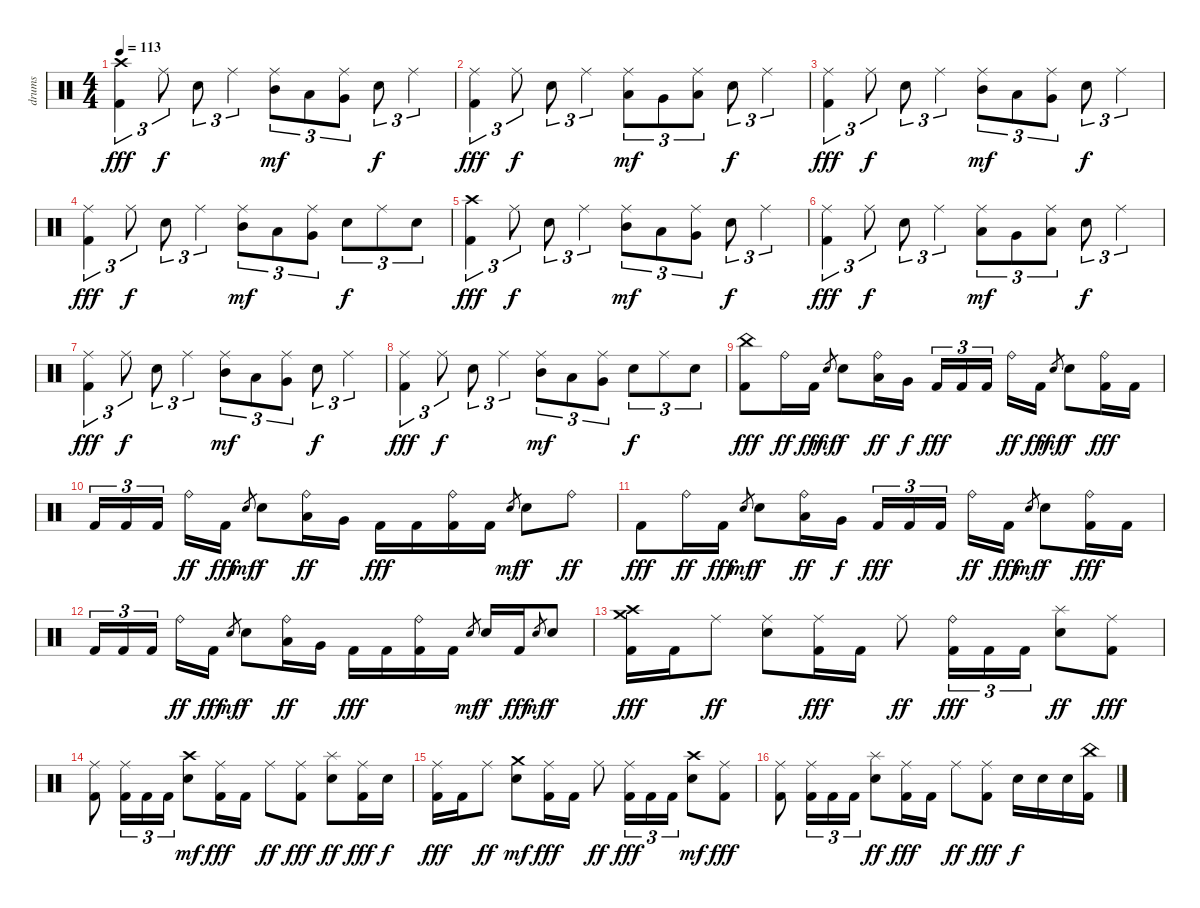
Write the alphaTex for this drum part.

\track ("drums" "drums") {instrument percussion}
\staff {score}
\articulation defaults
\ts (4 4)
\tempo 113
\clef neutral
\ks c
("Crash high (hit)" "Kick (hit) 2").4{tu (3 2) dy fff} "Ride (middle)".8{tu (3 2) dy f} "Electric Snare (hit)".8{tu (3 2)} "Ride (middle)".4{tu (3 2)} ("Ride (middle)" "Mid Tom (hit)").8{tu (3 2) dy mf} "Low Tom (hit)".8{tu (3 2)} ("Ride (middle)" "Very Low Tom (hit)").8{tu (3 2)} "Electric Snare (hit)".8{tu (3 2) dy f} "Ride (middle)".4{tu (3 2)} |
("Ride (middle)" "Kick (hit) 2").4{tu (3 2) dy fff} "Ride (middle)".8{tu (3 2) dy f} "Electric Snare (hit)".8{tu (3 2)} "Ride (middle)".4{tu (3 2)} ("Ride (middle)" "Low Tom (hit)").8{tu (3 2) dy mf} "Very Low Tom (hit)".8{tu (3 2)} ("Ride (middle)" "Low Floor Tom (hit)").8{tu (3 2)} "Electric Snare (hit)".8{tu (3 2) dy f} "Ride (middle)".4{tu (3 2)} |
("Ride (middle)" "Kick (hit) 2").4{tu (3 2) dy fff} "Ride (middle)".8{tu (3 2) dy f} "Electric Snare (hit)".8{tu (3 2)} "Ride (middle)".4{tu (3 2)} ("Ride (middle)" "Mid Tom (hit)").8{tu (3 2) dy mf} "Low Tom (hit)".8{tu (3 2)} ("Ride (middle)" "Very Low Tom (hit)").8{tu (3 2)} "Electric Snare (hit)".8{tu (3 2) dy f} "Ride (middle)".4{tu (3 2)} |
("Ride (middle)" "Kick (hit) 2").4{tu (3 2) dy fff} "Ride (middle)".8{tu (3 2) dy f} "Electric Snare (hit)".8{tu (3 2)} "Ride (middle)".4{tu (3 2)} ("Ride (middle)" "Mid Tom (hit)").8{tu (3 2) dy mf} "Low Tom (hit)".8{tu (3 2)} ("Ride (middle)" "Very Low Tom (hit)").8{tu (3 2)} "Electric Snare (hit)".8{tu (3 2) dy f} "Ride (middle)".8{tu (3 2)} "Electric Snare (hit)".8{tu (3 2)} |
("Crash high (hit)" "Kick (hit) 2").4{tu (3 2) dy fff} "Ride (middle)".8{tu (3 2) dy f} "Electric Snare (hit)".8{tu (3 2)} "Ride (middle)".4{tu (3 2)} ("Ride (middle)" "Mid Tom (hit)").8{tu (3 2) dy mf} "Low Tom (hit)".8{tu (3 2)} ("Ride (middle)" "Very Low Tom (hit)").8{tu (3 2)} "Electric Snare (hit)".8{tu (3 2) dy f} "Ride (middle)".4{tu (3 2)} |
("Ride (middle)" "Kick (hit) 2").4{tu (3 2) dy fff} "Ride (middle)".8{tu (3 2) dy f} "Electric Snare (hit)".8{tu (3 2)} "Ride (middle)".4{tu (3 2)} ("Ride (middle)" "Low Tom (hit)").8{tu (3 2) dy mf} "Very Low Tom (hit)".8{tu (3 2)} ("Ride (middle)" "Low Floor Tom (hit)").8{tu (3 2)} "Electric Snare (hit)".8{tu (3 2) dy f} "Ride (middle)".4{tu (3 2)} |
("Ride (middle)" "Kick (hit) 2").4{tu (3 2) dy fff} "Ride (middle)".8{tu (3 2) dy f} "Electric Snare (hit)".8{tu (3 2)} "Ride (middle)".4{tu (3 2)} ("Ride (middle)" "Mid Tom (hit)").8{tu (3 2) dy mf} "Low Tom (hit)".8{tu (3 2)} ("Ride (middle)" "Very Low Tom (hit)").8{tu (3 2)} "Electric Snare (hit)".8{tu (3 2) dy f} "Ride (middle)".4{tu (3 2)} |
("Ride (middle)" "Kick (hit) 2").4{tu (3 2) dy fff} "Ride (middle)".8{tu (3 2) dy f} "Electric Snare (hit)".8{tu (3 2)} "Ride (middle)".4{tu (3 2)} ("Ride (middle)" "Mid Tom (hit)").8{tu (3 2) dy mf} "Low Tom (hit)".8{tu (3 2)} ("Ride (middle)" "Very Low Tom (hit)").8{tu (3 2)} "Electric Snare (hit)".8{tu (3 2) dy f} "Ride (middle)".8{tu (3 2)} "Electric Snare (hit)".8{tu (3 2)} |
("China (hit)" "Kick (hit) 2").8{dy fff} "Ride (bell)".16{dy ff} "Kick (hit) 2".16{dy fff} "Electric Snare (hit)".8{gr dy mf} "Electric Snare (hit)".8{dy f} ("Ride (bell)" "Low Tom (hit)").16{dy ff} "Very Low Tom (hit)".16{dy f} "Kick (hit) 2".16{tu (3 2) dy fff} "Kick (hit) 2".16{tu (3 2)} "Kick (hit) 2".16{tu (3 2)} "Ride (bell)".16{dy ff} "Kick (hit) 2".16{dy fff} "Electric Snare (hit)".8{gr dy mf} "Electric Snare (hit)".8{dy f} ("Ride (bell)" "Kick (hit) 2").16{dy fff} "Kick (hit) 2".16 |
"Kick (hit) 2".16{tu (3 2)} "Kick (hit) 2".16{tu (3 2)} "Kick (hit) 2".16{tu (3 2)} "Ride (bell)".16{dy ff} "Kick (hit) 2".16{dy fff} "Electric Snare (hit)".8{gr dy mf} "Electric Snare (hit)".8{dy f} ("Ride (bell)" "Low Tom (hit)").16{dy ff} "Very Low Tom (hit)".16 "Kick (hit) 2".16{dy fff} "Kick (hit) 2".16 ("Ride (bell)" "Kick (hit) 2").16 "Kick (hit) 2".16 "Electric Snare (hit)".8{gr dy mf} "Electric Snare (hit)".8{dy f} "Ride (bell)".8{dy ff} |
"Kick (hit) 2".8{dy fff} "Ride (bell)".16{dy ff} "Kick (hit) 2".16{dy fff} "Electric Snare (hit)".8{gr dy mf} "Electric Snare (hit)".8{dy f} ("Ride (bell)" "Low Tom (hit)").16{dy ff} "Very Low Tom (hit)".16{dy f} "Kick (hit) 2".16{tu (3 2) dy fff} "Kick (hit) 2".16{tu (3 2)} "Kick (hit) 2".16{tu (3 2)} "Ride (bell)".16{dy ff} "Kick (hit) 2".16{dy fff} "Electric Snare (hit)".8{gr dy mf} "Electric Snare (hit)".8{dy f} ("Ride (bell)" "Kick (hit) 2").16{dy fff} "Kick (hit) 2".16 |
"Kick (hit) 2".16{tu (3 2)} "Kick (hit) 2".16{tu (3 2)} "Kick (hit) 2".16{tu (3 2)} "Ride (bell)".16{dy ff} "Kick (hit) 2".16{dy fff} "Electric Snare (hit)".8{gr dy mf} "Electric Snare (hit)".8{dy f} ("Ride (bell)" "Low Tom (hit)").16{dy ff} "Very Low Tom (hit)".16 "Kick (hit) 2".16{dy fff} "Kick (hit) 2".16 ("Ride (bell)" "Kick (hit) 2").16 "Kick (hit) 2".16 "Electric Snare (hit)".8{gr dy mf} "Electric Snare (hit)".16{dy f} "Kick (hit) 2".16{dy fff} "Electric Snare (hit)".8{gr dy mf} "Electric Snare (hit)".8{dy f} |
("Crash medium (hit)" "Crash high (hit)" "Kick (hit) 2").16{dy fff} "Kick (hit) 2".16 "Ride (middle)".8{dy ff} ("Ride (middle)" "Electric Snare (hit)").8 ("Ride (middle)" "Kick (hit) 2").16{dy fff} "Kick (hit) 2".16 "Ride (middle)".8{dy ff} ("Ride (bell)" "Kick (hit) 2").16{tu (3 2) dy fff} "Kick (hit) 2".16{tu (3 2)} "Kick (hit) 2".16{tu (3 2)} ("Splash (hit)" "Electric Snare (hit)").8{dy ff} ("Ride (middle)" "Kick (hit) 2").8{dy fff} |
("Ride (middle)" "Kick (hit) 2").8 ("Ride (middle)" "Kick (hit) 2").16{tu (3 2)} "Kick (hit) 2".16{tu (3 2)} "Kick (hit) 2".16{tu (3 2)} ("Crash high (hit)" "Electric Snare (hit)").8{dy mf} ("Ride (middle)" "Kick (hit) 2").16{dy fff} "Kick (hit) 2".16 "Ride (middle)".8{dy ff} ("Ride (middle)" "Kick (hit) 2").8{dy fff} ("Splash (hit)" "Electric Snare (hit)").8{dy ff} ("Ride (middle)" "Kick (hit) 2").16{dy fff} "Electric Snare (hit)".16{dy f} |
("Ride (middle)" "Kick (hit) 2").16{dy fff} "Kick (hit) 2".16 "Ride (middle)".8{dy ff} ("Crash medium (hit)" "Electric Snare (hit)").8{dy mf} ("Ride (middle)" "Kick (hit) 2").16{dy fff} "Kick (hit) 2".16 "Ride (middle)".8{dy ff} ("Ride (middle)" "Kick (hit) 2").16{tu (3 2) dy fff} "Kick (hit) 2".16{tu (3 2)} "Kick (hit) 2".16{tu (3 2)} ("Crash high (hit)" "Electric Snare (hit)").8{dy mf} ("Ride (middle)" "Kick (hit) 2").8{dy fff} |
("Ride (middle)" "Kick (hit) 2").8 ("Ride (middle)" "Kick (hit) 2").16{tu (3 2)} "Kick (hit) 2".16{tu (3 2)} "Kick (hit) 2".16{tu (3 2)} ("Splash (hit)" "Electric Snare (hit)").8{dy ff} ("Ride (middle)" "Kick (hit) 2").16{dy fff} "Kick (hit) 2".16 "Ride (middle)".8{dy ff} ("Ride (middle)" "Kick (hit) 2").8{dy fff} "Electric Snare (hit)".16{dy f} "Electric Snare (hit)".16 "Electric Snare (hit)".16 ("China (hit)" "Kick (hit) 2").16
